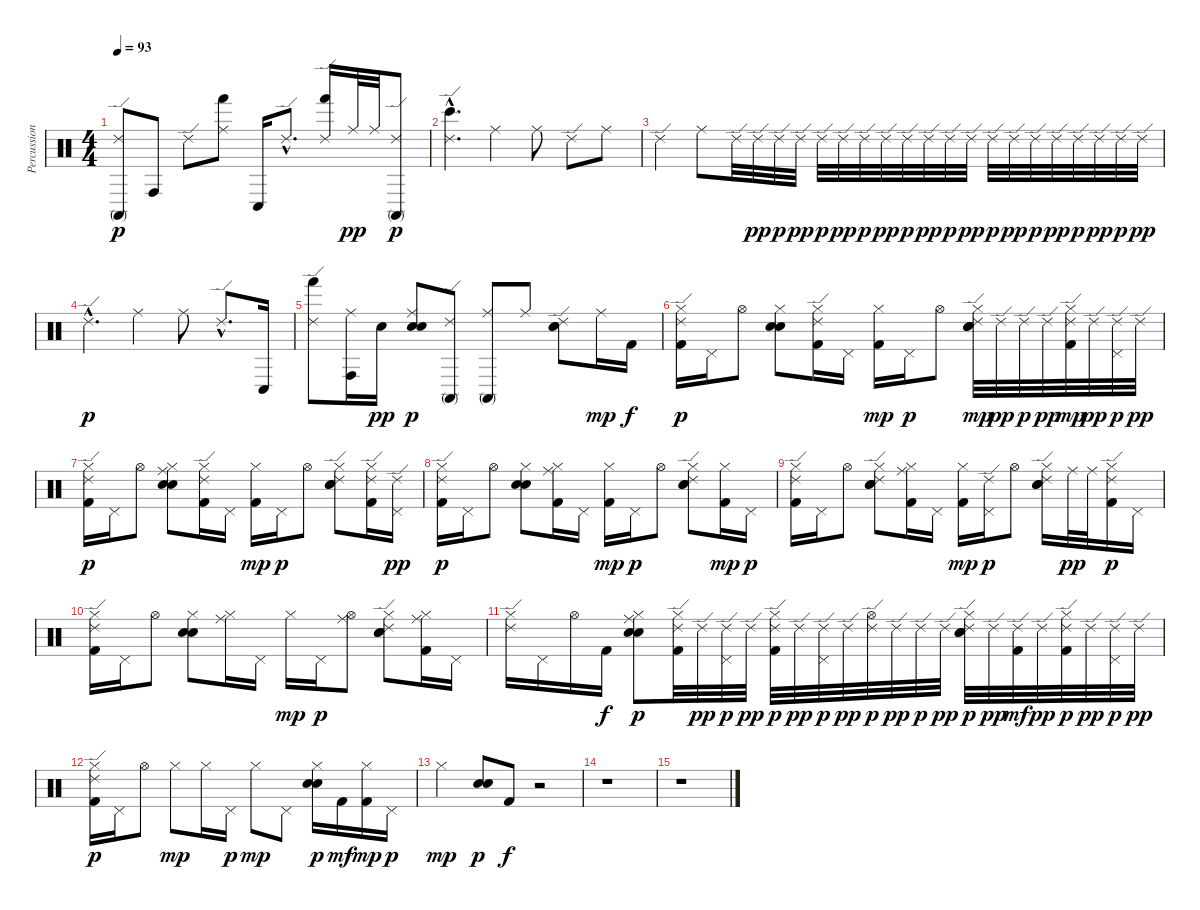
\track ("Percussions" "Percussion") {instrument percussion}
\staff {score}
\articulation defaults
\ts (4 4)
\tempo 93
\clef neutral
\ks c
("Ride (edge) 2" "Conga high (mute)").8{dy p} "Conga high (hit)".8 "Ride (edge) 2".8 ("Ride (middle)" "Hand (hit)").8 "Conga low (hit)".16 "Ride (edge) 2"{hac}.8{d} ("Ride (edge) 2" "Hand (hit)").16 "Ride (middle)".32{dy pp} "Ride (middle)".32 ("Ride (edge) 2" "Conga high (mute)").8{dy p} |
("Ride (edge) 2"{hac} "Bongo High (hit)"{hac}).4{d} "Ride (middle)".4 "Ride (middle)".8 "Ride (edge) 2".8 "Ride (middle)".8 |
"Ride (edge) 2".4 "Ride (middle)".8 "Ride (edge) 2".32 "Ride (edge) 2".32{dy pp} "Ride (edge) 2".32{dy p} "Ride (edge) 2".32{dy pp} "Ride (edge) 2".32{dy p} "Ride (edge) 2".32{dy pp} "Ride (edge) 2".32{dy p} "Ride (edge) 2".32{dy pp} "Ride (edge) 2".32{dy p} "Ride (edge) 2".32{dy pp} "Ride (edge) 2".32{dy p} "Ride (edge) 2".32{dy pp} "Ride (edge) 2".32{dy p} "Ride (edge) 2".32{dy pp} "Ride (edge) 2".32{dy p} "Ride (edge) 2".32{dy pp} "Ride (edge) 2".32{dy p} "Ride (edge) 2".32{dy pp} "Ride (edge) 2".32{dy p} "Ride (edge) 2".32{dy pp} |
"Ride (edge) 2"{hac}.4{d dy p} "Ride (middle)".4 "Ride (middle)".8 "Ride (edge) 2"{hac}.8{d} "Conga low (hit)".16 |
("Ride (edge) 2" "Hand (hit)").8 ("Ride (middle)" "Conga high (hit)").16 "Snare (hit) 2".16{dy pp} ("Ride (middle)" "Snare (hit) 2" "Hand Clap (hit)").8{dy p} ("Ride (edge) 2" "Conga high (mute)").8 ("Ride (middle)" "Conga high (mute)").8 "Ride (middle)".8 ("Ride (edge) 2" "Snare (hit) 2" "Hand Clap (hit)").8 "Ride (middle)".16{dy mp} "Kick (hit) 2".16{dy f} |
("Hi-Hat (closed)" "Ride (edge) 2" "Kick (hit) 2").16{dy p} "Pedal Hi-Hat (hit)".16 "Hi-Hat (open)".8 ("Hi-Hat (closed)" "Snare (hit) 2" "Hand Clap (hit)").8 ("Hi-Hat (closed)" "Ride (edge) 2" "Kick (hit) 2").16 "Pedal Hi-Hat (hit)".16 ("Hi-Hat (closed)" "Kick (hit) 2").16{dy mp} "Pedal Hi-Hat (hit)".16{dy p} "Hi-Hat (open)".8 ("Ride (edge) 2" "Snare (hit) 2" "Hand Clap (hit)" "Hi-Hat (closed)").32{dy mp} "Ride (edge) 2".32{dy pp} "Ride (edge) 2".32{dy p} "Ride (edge) 2".32{dy pp} ("Ride (edge) 2" "Hi-Hat (closed)" "Kick (hit) 2").32{dy mp} "Ride (edge) 2".32{dy pp} ("Ride (edge) 2" "Pedal Hi-Hat (hit)").32{dy p} "Ride (edge) 2".32{dy pp} |
("Hi-Hat (closed)" "Ride (edge) 2" "Kick (hit) 2").16{dy p} "Pedal Hi-Hat (hit)".16 "Hi-Hat (open)".8 ("Hi-Hat (closed)" "Snare (hit) 2" "Hand Clap (hit)" "Ride (middle)").8 ("Hi-Hat (closed)" "Ride (edge) 2" "Kick (hit) 2").16 "Pedal Hi-Hat (hit)".16 ("Hi-Hat (closed)" "Kick (hit) 2").16{dy mp} "Pedal Hi-Hat (hit)".16{dy p} "Hi-Hat (open)".8 ("Hi-Hat (closed)" "Snare (hit) 2" "Hand Clap (hit)" "Ride (edge) 2").8 ("Hi-Hat (closed)" "Ride (edge) 2" "Kick (hit) 2").16 ("Pedal Hi-Hat (hit)" "Ride (edge) 2").16{dy pp} |
("Hi-Hat (closed)" "Ride (edge) 2" "Kick (hit) 2").16{dy p} "Pedal Hi-Hat (hit)".16 "Hi-Hat (open)".8 ("Hi-Hat (closed)" "Snare (hit) 2" "Hand Clap (hit)").8 ("Hi-Hat (closed)" "Ride (middle)" "Kick (hit) 2").16 "Pedal Hi-Hat (hit)".16 ("Hi-Hat (closed)" "Kick (hit) 2").16{dy mp} "Pedal Hi-Hat (hit)".16{dy p} "Hi-Hat (open)".8 ("Hi-Hat (closed)" "Snare (hit) 2" "Hand Clap (hit)" "Ride (edge) 2").8 ("Hi-Hat (closed)" "Kick (hit) 2").16{dy mp} "Pedal Hi-Hat (hit)".16{dy p} |
("Hi-Hat (closed)" "Ride (edge) 2" "Kick (hit) 2").16 "Pedal Hi-Hat (hit)".16 "Hi-Hat (open)".8 ("Hi-Hat (closed)" "Snare (hit) 2" "Hand Clap (hit)" "Ride (edge) 2").8 ("Hi-Hat (closed)" "Ride (middle)" "Kick (hit) 2").16 "Pedal Hi-Hat (hit)".16 ("Hi-Hat (closed)" "Kick (hit) 2").16{dy mp} ("Pedal Hi-Hat (hit)" "Ride (edge) 2").16{dy p} "Hi-Hat (open)".8 ("Hi-Hat (closed)" "Snare (hit) 2" "Hand Clap (hit)" "Ride (edge) 2").16 "Ride (middle)".32{dy pp} "Ride (middle)".32 ("Hi-Hat (closed)" "Ride (edge) 2" "Kick (hit) 2").16{dy p} "Pedal Hi-Hat (hit)".16 |
("Hi-Hat (closed)" "Ride (edge) 2" "Kick (hit) 2").16 "Pedal Hi-Hat (hit)".16 "Hi-Hat (open)".8 ("Hi-Hat (closed)" "Snare (hit) 2" "Hand Clap (hit)").8 ("Hi-Hat (closed)" "Ride (middle)").16 "Pedal Hi-Hat (hit)".16 "Hi-Hat (closed)".16{dy mp} "Pedal Hi-Hat (hit)".16{dy p} ("Hi-Hat (open)" "Ride (middle)").8 ("Hi-Hat (closed)" "Snare (hit) 2" "Hand Clap (hit)" "Ride (edge) 2").8 ("Hi-Hat (closed)" "Ride (middle)" "Kick (hit) 2").16 "Pedal Hi-Hat (hit)".16 |
("Hi-Hat (closed)" "Ride (edge) 2").16 "Pedal Hi-Hat (hit)".16 "Hi-Hat (open)".16 "Kick (hit) 2".16{dy f} ("Hi-Hat (closed)" "Snare (hit) 2" "Hand Clap (hit)" "Ride (middle)").8{dy p} ("Hi-Hat (closed)" "Ride (edge) 2" "Kick (hit) 2").32 "Ride (edge) 2".32{dy pp} ("Pedal Hi-Hat (hit)" "Ride (edge) 2").32{dy p} "Ride (edge) 2".32{dy pp} ("Hi-Hat (closed)" "Ride (edge) 2" "Kick (hit) 2").32{dy p} "Ride (edge) 2".32{dy pp} ("Pedal Hi-Hat (hit)" "Ride (edge) 2").32{dy p} "Ride (edge) 2".32{dy pp} ("Hi-Hat (open)" "Ride (edge) 2").32{dy p} "Ride (edge) 2".32{dy pp} "Ride (edge) 2".32{dy p} "Ride (edge) 2".32{dy pp} ("Hi-Hat (closed)" "Ride (edge) 2" "Snare (hit) 2" "Hand Clap (hit)").32{dy p} "Ride (edge) 2".32{dy pp} ("Ride (edge) 2" "Kick (hit) 2").32{dy mf} "Ride (edge) 2".32{dy pp} ("Hi-Hat (closed)" "Ride (edge) 2" "Kick (hit) 2").32{dy p} "Ride (edge) 2".32{dy pp} ("Pedal Hi-Hat (hit)" "Ride (edge) 2").32{dy p} "Ride (edge) 2".32{dy pp} |
("Hi-Hat (closed)" "Ride (edge) 2" "Kick (hit) 2").16{dy p} "Pedal Hi-Hat (hit)".16 "Hi-Hat (open)".8 "Hi-Hat (closed)".8{dy mp} "Hi-Hat (closed)".16 "Pedal Hi-Hat (hit)".16{dy p} "Hi-Hat (closed)".8{dy mp} "Pedal Hi-Hat (hit)".8 ("Hi-Hat (closed)" "Snare (hit) 2" "Hand Clap (hit)").16{dy p} "Kick (hit) 2".16{dy mf} ("Hi-Hat (closed)" "Kick (hit) 2").16{dy mp} "Pedal Hi-Hat (hit)".16{dy p} |
"Hi-Hat (closed)".4{dy mp} ("Snare (hit) 2" "Hand Clap (hit)").8{dy p} "Kick (hit) 2".8{dy f} r.2 |
r.1 |
r.1
